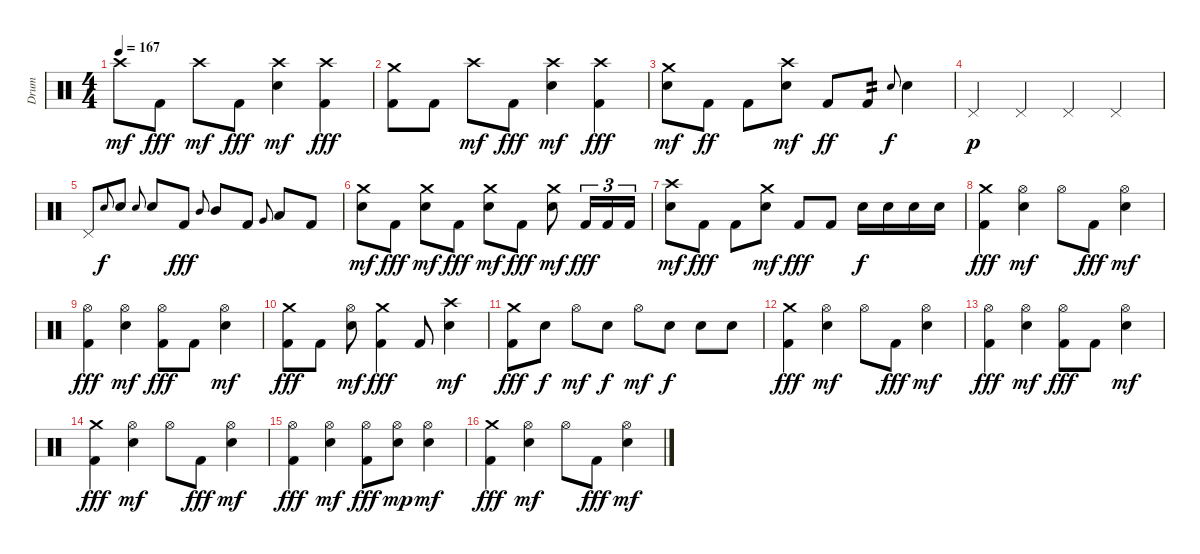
\track ("Drum" "Drum") {instrument percussion}
\staff {score}
\articulation defaults
\ts (4 4)
\tempo 167
\clef neutral
\ks c "Crash high (hit)".8{dy mf} "Kick (hit) 2".8{dy fff} "Crash high (hit)".8{dy mf} "Kick (hit) 2".8{dy fff}
("Crash high (hit)" "Electric Snare (hit)").4{dy mf} ("Crash high (hit)" "Kick (hit) 2").4{dy fff} |
("Crash medium (hit)" "Kick (hit) 2").8 "Kick (hit) 2".8 "Crash high (hit)".8{dy mf} "Kick (hit) 2".8{dy fff} ("Crash high (hit)" "Electric Snare (hit)").4{dy mf} ("Crash high (hit)" "Kick (hit) 2").4{dy fff} |
("Crash medium (hit)" "Electric Snare (hit)").8{dy mf} "Kick (hit) 2".8{dy ff} "Kick (hit) 2".8 ("Crash high (hit)" "Electric Snare (hit)").8{dy mf} "Kick (hit) 2".8{dy ff} "Kick (hit) 2".8{tp 2} "Electric Snare (hit)".8{gr onbeat dy f} "Electric Snare (hit)".4 |
"Pedal Hi-Hat (hit)".4{dy p} "Pedal Hi-Hat (hit)".4 "Pedal Hi-Hat (hit)".4 "Pedal Hi-Hat (hit)".4 |
"Pedal Hi-Hat (hit)".8 "Electric Snare (hit)".8{gr onbeat dy f} "Electric Snare (hit)".8 "Electric Snare (hit)".8{gr onbeat} "Electric Snare (hit)".8 "Kick (hit) 2".8{dy fff} "Mid Tom (hit)".8{gr onbeat} "Mid Tom (hit)".8 "Kick (hit) 2".8 "Very Low Tom (hit)".8{gr onbeat} "Low Tom (hit)".8 "Kick (hit) 2".8 |
("Crash medium (hit)" "Electric Snare (hit)").8{dy mf} "Kick (hit) 2".8{dy fff} ("Crash medium (hit)" "Electric Snare (hit)").8{dy mf} "Kick (hit) 2".8{dy fff} ("Crash medium (hit)" "Electric Snare (hit)").8{dy mf} "Kick (hit) 2".8{dy fff} ("Crash medium (hit)" "Electric Snare (hit)").8{dy mf} "Kick (hit) 2".16{tu (3 2) dy fff} "Kick (hit) 2".16{tu (3 2)} "Kick (hit) 2".16{tu (3 2)} |
("Crash high (hit)" "Electric Snare (hit)").8{dy mf} "Kick (hit) 2".8{dy fff} "Kick (hit) 2".8 ("Crash medium (hit)" "Electric Snare (hit)").8{dy mf} "Kick (hit) 2".8{dy fff} "Kick (hit) 2".8 "Electric Snare (hit)".16{dy f} "Electric Snare (hit)".16 "Electric Snare (hit)".16 "Electric Snare (hit)".16 |
("Crash medium (hit)" "Kick (hit) 2").4{dy fff} ("Hi-Hat (open)" "Electric Snare (hit)").4{dy mf} "Hi-Hat (open)".8 "Kick (hit) 2".8{dy fff} ("Hi-Hat (open)" "Electric Snare (hit)").4{dy mf} |
("Hi-Hat (open)" "Kick (hit) 2").4{dy fff} ("Hi-Hat (open)" "Electric Snare (hit)").4{dy mf} ("Hi-Hat (open)" "Kick (hit) 2").8{dy fff} "Kick (hit) 2".8 ("Hi-Hat (open)" "Electric Snare (hit)").4{dy mf} |
("Crash medium (hit)" "Kick (hit) 2").8{dy fff} "Kick (hit) 2".8 ("Hi-Hat (open)" "Electric Snare (hit)").8{dy mf} ("Crash medium (hit)" "Kick (hit) 2").4{dy fff} "Kick (hit) 2".8 ("Crash high (hit)" "Electric Snare (hit)").4{dy mf} |
("Crash medium (hit)" "Kick (hit) 2").8{dy fff} "Electric Snare (hit)".8{dy f} "Hi-Hat (open)".8{dy mf} "Electric Snare (hit)".8{dy f} "Hi-Hat (open)".8{dy mf} "Electric Snare (hit)".8{dy f} "Electric Snare (hit)".8 "Electric Snare (hit)".8 |
("Crash medium (hit)" "Kick (hit) 2").4{dy fff} ("Hi-Hat (open)" "Electric Snare (hit)").4{dy mf} "Hi-Hat (open)".8 "Kick (hit) 2".8{dy fff} ("Hi-Hat (open)" "Electric Snare (hit)").4{dy mf} |
("Hi-Hat (open)" "Kick (hit) 2").4{dy fff} ("Hi-Hat (open)" "Electric Snare (hit)").4{dy mf} ("Hi-Hat (open)" "Kick (hit) 2").8{dy fff} "Kick (hit) 2".8 ("Hi-Hat (open)" "Electric Snare (hit)").4{dy mf} |
("Crash medium (hit)" "Kick (hit) 2").4{dy fff} ("Hi-Hat (open)" "Electric Snare (hit)").4{dy mf} "Hi-Hat (open)".8 "Kick (hit) 2".8{dy fff} ("Hi-Hat (open)" "Electric Snare (hit)").4{dy mf} |
("Hi-Hat (open)" "Kick (hit) 2").4{dy fff} ("Hi-Hat (open)" "Electric Snare (hit)").4{dy mf} ("Hi-Hat (open)" "Kick (hit) 2").8{dy fff} ("Hi-Hat (open)" "Electric Snare (hit)").8{dy mp} ("Hi-Hat (open)" "Electric Snare (hit)").4{dy mf} |
("Crash medium (hit)" "Kick (hit) 2").4{dy fff} ("Hi-Hat (open)" "Electric Snare (hit)").4{dy mf} "Hi-Hat (open)".8 "Kick (hit) 2".8{dy fff} ("Hi-Hat (open)" "Electric Snare (hit)").4{dy mf}
